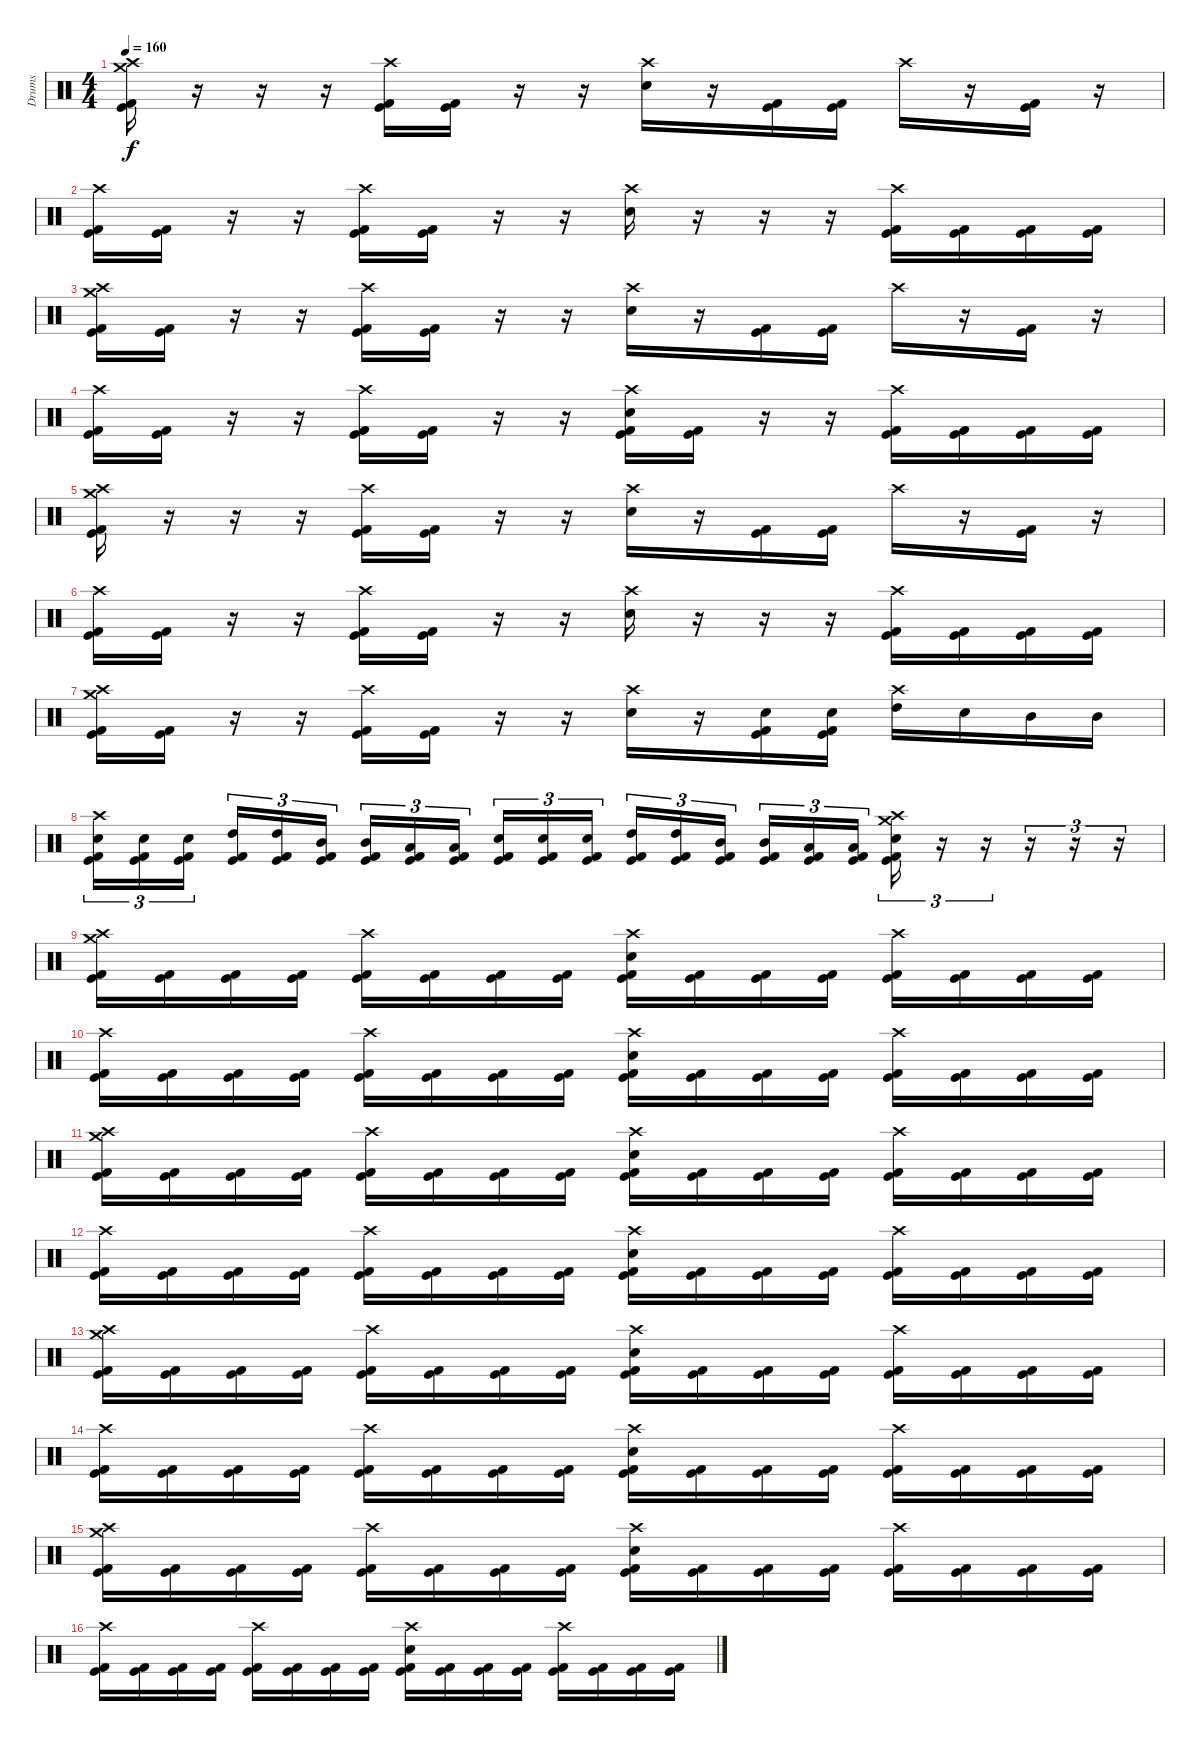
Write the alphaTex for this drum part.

\track ("Drums" "Drums") {instrument percussion}
\staff {score}
\articulation defaults
\ts (4 4)
\tempo 160
\clef neutral
\ks c
("Crash medium (hit)" "Crash high (hit)" "Kick (hit)" "Kick (hit) 2").16{dy f} r.16 r.16 r.16 ("Crash high (hit)" "Kick (hit)" "Kick (hit) 2").16 ("Kick (hit)" "Kick (hit) 2").16 r.16 r.16 ("Crash high (hit)" "Snare (hit) 2").16 r.16 ("Kick (hit)" "Kick (hit) 2").16 ("Kick (hit)" "Kick (hit) 2").16 "Crash high (hit)".16 r.16 ("Kick (hit)" "Kick (hit) 2").16 r.16 |
("Crash high (hit)" "Kick (hit)" "Kick (hit) 2").16 ("Kick (hit)" "Kick (hit) 2").16 r.16 r.16 ("Crash high (hit)" "Kick (hit)" "Kick (hit) 2").16 ("Kick (hit)" "Kick (hit) 2").16 r.16 r.16 ("Crash high (hit)" "Snare (hit) 2").16 r.16 r.16 r.16 ("Crash high (hit)" "Kick (hit)" "Kick (hit) 2").16 ("Kick (hit)" "Kick (hit) 2").16 ("Kick (hit)" "Kick (hit) 2").16 ("Kick (hit)" "Kick (hit) 2").16 |
("Crash medium (hit)" "Crash high (hit)" "Kick (hit)" "Kick (hit) 2").16 ("Kick (hit)" "Kick (hit) 2").16 r.16 r.16 ("Crash high (hit)" "Kick (hit)" "Kick (hit) 2").16 ("Kick (hit)" "Kick (hit) 2").16 r.16 r.16 ("Crash high (hit)" "Snare (hit) 2").16 r.16 ("Kick (hit)" "Kick (hit) 2").16 ("Kick (hit)" "Kick (hit) 2").16 "Crash high (hit)".16 r.16 ("Kick (hit)" "Kick (hit) 2").16 r.16 |
("Crash high (hit)" "Kick (hit)" "Kick (hit) 2").16 ("Kick (hit)" "Kick (hit) 2").16 r.16 r.16 ("Crash high (hit)" "Kick (hit)" "Kick (hit) 2").16 ("Kick (hit)" "Kick (hit) 2").16 r.16 r.16 ("Crash high (hit)" "Snare (hit) 2" "Kick (hit)" "Kick (hit) 2").16 ("Kick (hit)" "Kick (hit) 2").16 r.16 r.16 ("Crash high (hit)" "Kick (hit)" "Kick (hit) 2").16 ("Kick (hit)" "Kick (hit) 2").16 ("Kick (hit)" "Kick (hit) 2").16 ("Kick (hit)" "Kick (hit) 2").16 |
("Crash medium (hit)" "Crash high (hit)" "Kick (hit)" "Kick (hit) 2").16 r.16 r.16 r.16 ("Crash high (hit)" "Kick (hit)" "Kick (hit) 2").16 ("Kick (hit)" "Kick (hit) 2").16 r.16 r.16 ("Crash high (hit)" "Snare (hit) 2").16 r.16 ("Kick (hit)" "Kick (hit) 2").16 ("Kick (hit)" "Kick (hit) 2").16 "Crash high (hit)".16 r.16 ("Kick (hit)" "Kick (hit) 2").16 r.16 |
("Crash high (hit)" "Kick (hit)" "Kick (hit) 2").16 ("Kick (hit)" "Kick (hit) 2").16 r.16 r.16 ("Crash high (hit)" "Kick (hit)" "Kick (hit) 2").16 ("Kick (hit)" "Kick (hit) 2").16 r.16 r.16 ("Crash high (hit)" "Snare (hit) 2").16 r.16 r.16 r.16 ("Crash high (hit)" "Kick (hit)" "Kick (hit) 2").16 ("Kick (hit)" "Kick (hit) 2").16 ("Kick (hit)" "Kick (hit) 2").16 ("Kick (hit)" "Kick (hit) 2").16 |
("Crash medium (hit)" "Crash high (hit)" "Kick (hit)" "Kick (hit) 2").16 ("Kick (hit)" "Kick (hit) 2").16 r.16 r.16 ("Crash high (hit)" "Kick (hit)" "Kick (hit) 2").16 ("Kick (hit)" "Kick (hit) 2").16 r.16 r.16 ("Crash high (hit)" "Snare (hit) 2").16 r.16 ("Snare (hit) 2" "Kick (hit)" "Kick (hit) 2").16 ("Snare (hit) 2" "Kick (hit)" "Kick (hit) 2").16 ("Crash high (hit)" "High Tom (hit)").16 "Snare (hit) 2".16 "Mid Tom (hit)".16 "Mid Tom (hit)".16 |
("Crash high (hit)" "Snare (hit) 2" "Kick (hit)" "Kick (hit) 2").16{tu (3 2)} ("Snare (hit) 2" "Kick (hit)" "Kick (hit) 2").16{tu (3 2)} ("Snare (hit) 2" "Kick (hit)" "Kick (hit) 2").16{tu (3 2) beam splitsecondary} ("High Tom (hit)" "Kick (hit)" "Kick (hit) 2").16{tu (3 2)} ("High Tom (hit)" "Kick (hit)" "Kick (hit) 2").16{tu (3 2)} ("Mid Tom (hit)" "Kick (hit)" "Kick (hit) 2").16{tu (3 2)} ("Mid Tom (hit)" "Kick (hit)" "Kick (hit) 2").16{tu (3 2)} ("Low Tom (hit)" "Kick (hit)" "Kick (hit) 2").16{tu (3 2)} ("Low Tom (hit)" "Kick (hit)" "Kick (hit) 2").16{tu (3 2) beam splitsecondary} ("Snare (hit) 2" "Kick (hit)" "Kick (hit) 2").16{tu (3 2)} ("Snare (hit) 2" "Kick (hit)" "Kick (hit) 2").16{tu (3 2)} ("Snare (hit) 2" "Kick (hit)" "Kick (hit) 2").16{tu (3 2)} ("High Tom (hit)" "Kick (hit)" "Kick (hit) 2").16{tu (3 2)} ("High Tom (hit)" "Kick (hit)" "Kick (hit) 2").16{tu (3 2)} ("Mid Tom (hit)" "Kick (hit)" "Kick (hit) 2").16{tu (3 2) beam splitsecondary} ("Mid Tom (hit)" "Kick (hit)" "Kick (hit) 2").16{tu (3 2)} ("Low Tom (hit)" "Kick (hit)" "Kick (hit) 2").16{tu (3 2)} ("Low Tom (hit)" "Kick (hit)" "Kick (hit) 2").16{tu (3 2)} ("Crash medium (hit)" "Crash high (hit)" "Snare (hit) 2" "Kick (hit)" "Kick (hit) 2").16{tu (3 2)} r.16{tu (3 2)} r.16{tu (3 2)} r.16{tu (3 2)} r.16{tu (3 2)} r.16{tu (3 2)} |
("Crash medium (hit)" "Crash high (hit)" "Kick (hit)" "Kick (hit) 2").16 ("Kick (hit)" "Kick (hit) 2").16 ("Kick (hit)" "Kick (hit) 2").16 ("Kick (hit)" "Kick (hit) 2").16 ("Crash high (hit)" "Kick (hit)" "Kick (hit) 2").16 ("Kick (hit)" "Kick (hit) 2").16 ("Kick (hit)" "Kick (hit) 2").16 ("Kick (hit)" "Kick (hit) 2").16 ("Crash high (hit)" "Snare (hit) 2" "Kick (hit)" "Kick (hit) 2").16 ("Kick (hit)" "Kick (hit) 2").16 ("Kick (hit)" "Kick (hit) 2").16 ("Kick (hit)" "Kick (hit) 2").16 ("Crash high (hit)" "Kick (hit)" "Kick (hit) 2").16 ("Kick (hit)" "Kick (hit) 2").16 ("Kick (hit)" "Kick (hit) 2").16 ("Kick (hit)" "Kick (hit) 2").16 |
("Crash high (hit)" "Kick (hit)" "Kick (hit) 2").16 ("Kick (hit)" "Kick (hit) 2").16 ("Kick (hit)" "Kick (hit) 2").16 ("Kick (hit)" "Kick (hit) 2").16 ("Crash high (hit)" "Kick (hit)" "Kick (hit) 2").16 ("Kick (hit)" "Kick (hit) 2").16 ("Kick (hit)" "Kick (hit) 2").16 ("Kick (hit)" "Kick (hit) 2").16 ("Crash high (hit)" "Snare (hit) 2" "Kick (hit)" "Kick (hit) 2").16 ("Kick (hit)" "Kick (hit) 2").16 ("Kick (hit)" "Kick (hit) 2").16 ("Kick (hit)" "Kick (hit) 2").16 ("Crash high (hit)" "Kick (hit)" "Kick (hit) 2").16 ("Kick (hit)" "Kick (hit) 2").16 ("Kick (hit)" "Kick (hit) 2").16 ("Kick (hit)" "Kick (hit) 2").16 |
("Crash medium (hit)" "Crash high (hit)" "Kick (hit)" "Kick (hit) 2").16 ("Kick (hit)" "Kick (hit) 2").16 ("Kick (hit)" "Kick (hit) 2").16 ("Kick (hit)" "Kick (hit) 2").16 ("Crash high (hit)" "Kick (hit)" "Kick (hit) 2").16 ("Kick (hit)" "Kick (hit) 2").16 ("Kick (hit)" "Kick (hit) 2").16 ("Kick (hit)" "Kick (hit) 2").16 ("Crash high (hit)" "Snare (hit) 2" "Kick (hit)" "Kick (hit) 2").16 ("Kick (hit)" "Kick (hit) 2").16 ("Kick (hit)" "Kick (hit) 2").16 ("Kick (hit)" "Kick (hit) 2").16 ("Crash high (hit)" "Kick (hit)" "Kick (hit) 2").16 ("Kick (hit)" "Kick (hit) 2").16 ("Kick (hit)" "Kick (hit) 2").16 ("Kick (hit)" "Kick (hit) 2").16 |
("Crash high (hit)" "Kick (hit)" "Kick (hit) 2").16 ("Kick (hit)" "Kick (hit) 2").16 ("Kick (hit)" "Kick (hit) 2").16 ("Kick (hit)" "Kick (hit) 2").16 ("Crash high (hit)" "Kick (hit)" "Kick (hit) 2").16 ("Kick (hit)" "Kick (hit) 2").16 ("Kick (hit)" "Kick (hit) 2").16 ("Kick (hit)" "Kick (hit) 2").16 ("Crash high (hit)" "Snare (hit) 2" "Kick (hit)" "Kick (hit) 2").16 ("Kick (hit)" "Kick (hit) 2").16 ("Kick (hit)" "Kick (hit) 2").16 ("Kick (hit)" "Kick (hit) 2").16 ("Crash high (hit)" "Kick (hit)" "Kick (hit) 2").16 ("Kick (hit)" "Kick (hit) 2").16 ("Kick (hit)" "Kick (hit) 2").16 ("Kick (hit)" "Kick (hit) 2").16 |
("Crash medium (hit)" "Crash high (hit)" "Kick (hit)" "Kick (hit) 2").16 ("Kick (hit)" "Kick (hit) 2").16 ("Kick (hit)" "Kick (hit) 2").16 ("Kick (hit)" "Kick (hit) 2").16 ("Crash high (hit)" "Kick (hit)" "Kick (hit) 2").16 ("Kick (hit)" "Kick (hit) 2").16 ("Kick (hit)" "Kick (hit) 2").16 ("Kick (hit)" "Kick (hit) 2").16 ("Crash high (hit)" "Snare (hit) 2" "Kick (hit)" "Kick (hit) 2").16 ("Kick (hit)" "Kick (hit) 2").16 ("Kick (hit)" "Kick (hit) 2").16 ("Kick (hit)" "Kick (hit) 2").16 ("Crash high (hit)" "Kick (hit)" "Kick (hit) 2").16 ("Kick (hit)" "Kick (hit) 2").16 ("Kick (hit)" "Kick (hit) 2").16 ("Kick (hit)" "Kick (hit) 2").16 |
("Crash high (hit)" "Kick (hit)" "Kick (hit) 2").16 ("Kick (hit)" "Kick (hit) 2").16 ("Kick (hit)" "Kick (hit) 2").16 ("Kick (hit)" "Kick (hit) 2").16 ("Crash high (hit)" "Kick (hit)" "Kick (hit) 2").16 ("Kick (hit)" "Kick (hit) 2").16 ("Kick (hit)" "Kick (hit) 2").16 ("Kick (hit)" "Kick (hit) 2").16 ("Crash high (hit)" "Snare (hit) 2" "Kick (hit)" "Kick (hit) 2").16 ("Kick (hit)" "Kick (hit) 2").16 ("Kick (hit)" "Kick (hit) 2").16 ("Kick (hit)" "Kick (hit) 2").16 ("Crash high (hit)" "Kick (hit)" "Kick (hit) 2").16 ("Kick (hit)" "Kick (hit) 2").16 ("Kick (hit)" "Kick (hit) 2").16 ("Kick (hit)" "Kick (hit) 2").16 |
("Crash medium (hit)" "Crash high (hit)" "Kick (hit)" "Kick (hit) 2").16 ("Kick (hit)" "Kick (hit) 2").16 ("Kick (hit)" "Kick (hit) 2").16 ("Kick (hit)" "Kick (hit) 2").16 ("Crash high (hit)" "Kick (hit)" "Kick (hit) 2").16 ("Kick (hit)" "Kick (hit) 2").16 ("Kick (hit)" "Kick (hit) 2").16 ("Kick (hit)" "Kick (hit) 2").16 ("Crash high (hit)" "Snare (hit) 2" "Kick (hit)" "Kick (hit) 2").16 ("Kick (hit)" "Kick (hit) 2").16 ("Kick (hit)" "Kick (hit) 2").16 ("Kick (hit)" "Kick (hit) 2").16 ("Crash high (hit)" "Kick (hit)" "Kick (hit) 2").16 ("Kick (hit)" "Kick (hit) 2").16 ("Kick (hit)" "Kick (hit) 2").16 ("Kick (hit)" "Kick (hit) 2").16 |
("Crash high (hit)" "Kick (hit)" "Kick (hit) 2").16 ("Kick (hit)" "Kick (hit) 2").16 ("Kick (hit)" "Kick (hit) 2").16 ("Kick (hit)" "Kick (hit) 2").16 ("Crash high (hit)" "Kick (hit)" "Kick (hit) 2").16 ("Kick (hit)" "Kick (hit) 2").16 ("Kick (hit)" "Kick (hit) 2").16 ("Kick (hit)" "Kick (hit) 2").16 ("Crash high (hit)" "Snare (hit) 2" "Kick (hit)" "Kick (hit) 2").16 ("Kick (hit)" "Kick (hit) 2").16 ("Kick (hit)" "Kick (hit) 2").16 ("Kick (hit)" "Kick (hit) 2").16 ("Crash high (hit)" "Kick (hit)" "Kick (hit) 2").16 ("Kick (hit)" "Kick (hit) 2").16 ("Kick (hit)" "Kick (hit) 2").16 ("Kick (hit)" "Kick (hit) 2").16
